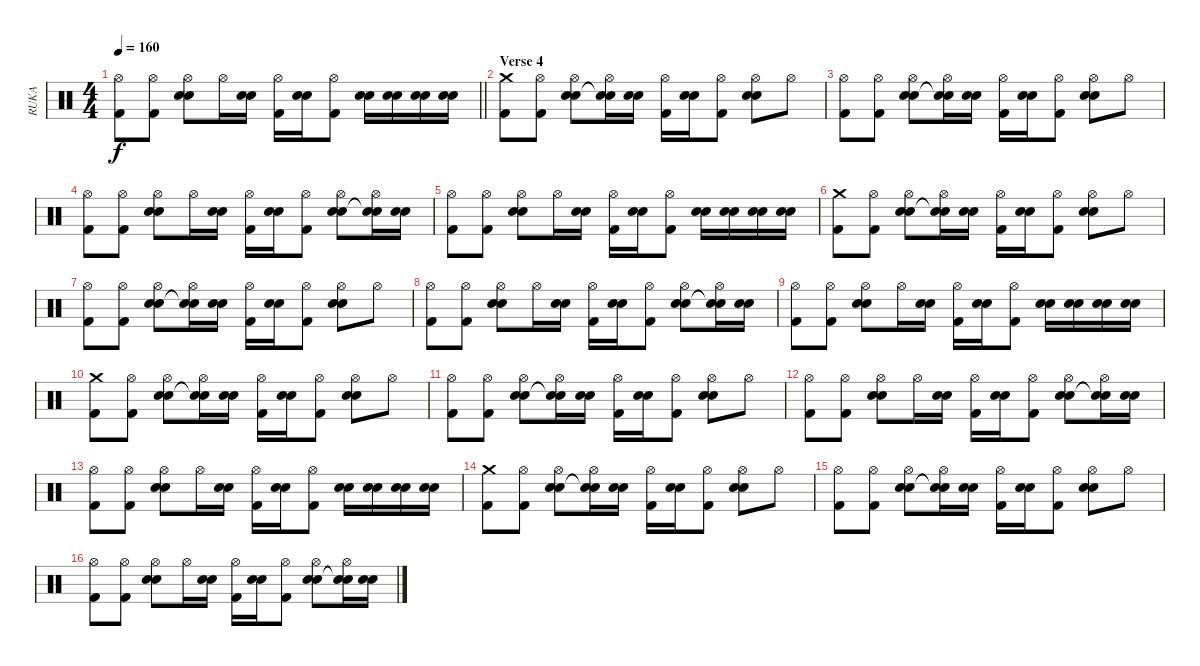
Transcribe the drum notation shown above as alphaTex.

\track ("RUKA" "RUKA") {instrument percussion}
\staff {score}
\articulation defaults
\ts (4 4)
\tempo 160
\clef neutral
\barLineRight lightlight
\ks c
("Hi-Hat (open)" "Kick (hit) 2").8{dy f} ("Hi-Hat (open)" "Kick (hit) 2").8 ("Hi-Hat (open)" "Snare (hit) 2" "Electric Snare (hit)").8 "Hi-Hat (open)".16 ("Snare (hit) 2" "Electric Snare (hit)").16 ("Hi-Hat (open)" "Kick (hit) 2").16 ("Snare (hit) 2" "Electric Snare (hit)").16 ("Hi-Hat (open)" "Kick (hit) 2").8 ("Snare (hit) 2" "Electric Snare (hit)").16 ("Snare (hit) 2" "Electric Snare (hit)").16 ("Snare (hit) 2" "Electric Snare (hit)").16 ("Snare (hit) 2" "Electric Snare (hit)").16 |
\section ("" "Verse 4")
("Crash medium (hit)" "Kick (hit) 2").8 ("Hi-Hat (open)" "Kick (hit) 2").8 ("Hi-Hat (open)" "Snare (hit) 2" "Electric Snare (hit)").8 ("Hi-Hat (open)" "Snare (hit)"{t} "Snare (hit)"{t}).16 ("Snare (hit) 2" "Electric Snare (hit)").16 ("Hi-Hat (open)" "Kick (hit) 2").16 ("Snare (hit) 2" "Electric Snare (hit)").16 ("Hi-Hat (open)" "Kick (hit) 2").8 ("Hi-Hat (open)" "Snare (hit) 2" "Electric Snare (hit)").8 "Hi-Hat (open)".8 |
("Hi-Hat (open)" "Kick (hit) 2").8 ("Hi-Hat (open)" "Kick (hit) 2").8 ("Hi-Hat (open)" "Snare (hit) 2" "Electric Snare (hit)").8 ("Hi-Hat (open)" "Snare (hit)"{t} "Snare (hit)"{t}).16 ("Snare (hit) 2" "Electric Snare (hit)").16 ("Hi-Hat (open)" "Kick (hit) 2").16 ("Snare (hit) 2" "Electric Snare (hit)").16 ("Hi-Hat (open)" "Kick (hit) 2").8 ("Hi-Hat (open)" "Snare (hit) 2" "Electric Snare (hit)").8 "Hi-Hat (open)".8 |
("Hi-Hat (open)" "Kick (hit) 2").8 ("Hi-Hat (open)" "Kick (hit) 2").8 ("Hi-Hat (open)" "Snare (hit) 2" "Electric Snare (hit)").8 "Hi-Hat (open)".16 ("Snare (hit) 2" "Electric Snare (hit)").16 ("Hi-Hat (open)" "Kick (hit) 2").16 ("Snare (hit) 2" "Electric Snare (hit)").16 ("Hi-Hat (open)" "Kick (hit) 2").8 ("Hi-Hat (open)" "Snare (hit) 2" "Electric Snare (hit)").8 ("Hi-Hat (open)" "Snare (hit)"{t} "Snare (hit)"{t}).16 ("Snare (hit) 2" "Electric Snare (hit)").16 |
("Hi-Hat (open)" "Kick (hit) 2").8 ("Hi-Hat (open)" "Kick (hit) 2").8 ("Hi-Hat (open)" "Snare (hit) 2" "Electric Snare (hit)").8 "Hi-Hat (open)".16 ("Snare (hit) 2" "Electric Snare (hit)").16 ("Hi-Hat (open)" "Kick (hit) 2").16 ("Snare (hit) 2" "Electric Snare (hit)").16 ("Hi-Hat (open)" "Kick (hit) 2").8 ("Snare (hit) 2" "Electric Snare (hit)").16 ("Snare (hit) 2" "Electric Snare (hit)").16 ("Snare (hit) 2" "Electric Snare (hit)").16 ("Snare (hit) 2" "Electric Snare (hit)").16 |
("Crash medium (hit)" "Kick (hit) 2").8 ("Hi-Hat (open)" "Kick (hit) 2").8 ("Hi-Hat (open)" "Snare (hit) 2" "Electric Snare (hit)").8 ("Hi-Hat (open)" "Snare (hit)"{t} "Snare (hit)"{t}).16 ("Snare (hit) 2" "Electric Snare (hit)").16 ("Hi-Hat (open)" "Kick (hit) 2").16 ("Snare (hit) 2" "Electric Snare (hit)").16 ("Hi-Hat (open)" "Kick (hit) 2").8 ("Hi-Hat (open)" "Snare (hit) 2" "Electric Snare (hit)").8 "Hi-Hat (open)".8 |
("Hi-Hat (open)" "Kick (hit) 2").8 ("Hi-Hat (open)" "Kick (hit) 2").8 ("Hi-Hat (open)" "Snare (hit) 2" "Electric Snare (hit)").8 ("Hi-Hat (open)" "Snare (hit)"{t} "Snare (hit)"{t}).16 ("Snare (hit) 2" "Electric Snare (hit)").16 ("Hi-Hat (open)" "Kick (hit) 2").16 ("Snare (hit) 2" "Electric Snare (hit)").16 ("Hi-Hat (open)" "Kick (hit) 2").8 ("Hi-Hat (open)" "Snare (hit) 2" "Electric Snare (hit)").8 "Hi-Hat (open)".8 |
("Hi-Hat (open)" "Kick (hit) 2").8 ("Hi-Hat (open)" "Kick (hit) 2").8 ("Hi-Hat (open)" "Snare (hit) 2" "Electric Snare (hit)").8 "Hi-Hat (open)".16 ("Snare (hit) 2" "Electric Snare (hit)").16 ("Hi-Hat (open)" "Kick (hit) 2").16 ("Snare (hit) 2" "Electric Snare (hit)").16 ("Hi-Hat (open)" "Kick (hit) 2").8 ("Hi-Hat (open)" "Snare (hit) 2" "Electric Snare (hit)").8 ("Hi-Hat (open)" "Snare (hit)"{t} "Snare (hit)"{t}).16 ("Snare (hit) 2" "Electric Snare (hit)").16 |
("Hi-Hat (open)" "Kick (hit) 2").8 ("Hi-Hat (open)" "Kick (hit) 2").8 ("Hi-Hat (open)" "Snare (hit) 2" "Electric Snare (hit)").8 "Hi-Hat (open)".16 ("Snare (hit) 2" "Electric Snare (hit)").16 ("Hi-Hat (open)" "Kick (hit) 2").16 ("Snare (hit) 2" "Electric Snare (hit)").16 ("Hi-Hat (open)" "Kick (hit) 2").8 ("Snare (hit) 2" "Electric Snare (hit)").16 ("Snare (hit) 2" "Electric Snare (hit)").16 ("Snare (hit) 2" "Electric Snare (hit)").16 ("Snare (hit) 2" "Electric Snare (hit)").16 |
("Crash medium (hit)" "Kick (hit) 2").8 ("Hi-Hat (open)" "Kick (hit) 2").8 ("Hi-Hat (open)" "Snare (hit) 2" "Electric Snare (hit)").8 ("Hi-Hat (open)" "Snare (hit)"{t} "Snare (hit)"{t}).16 ("Snare (hit) 2" "Electric Snare (hit)").16 ("Hi-Hat (open)" "Kick (hit) 2").16 ("Snare (hit) 2" "Electric Snare (hit)").16 ("Hi-Hat (open)" "Kick (hit) 2").8 ("Hi-Hat (open)" "Snare (hit) 2" "Electric Snare (hit)").8 "Hi-Hat (open)".8 |
("Hi-Hat (open)" "Kick (hit) 2").8 ("Hi-Hat (open)" "Kick (hit) 2").8 ("Hi-Hat (open)" "Snare (hit) 2" "Electric Snare (hit)").8 ("Hi-Hat (open)" "Snare (hit)"{t} "Snare (hit)"{t}).16 ("Snare (hit) 2" "Electric Snare (hit)").16 ("Hi-Hat (open)" "Kick (hit) 2").16 ("Snare (hit) 2" "Electric Snare (hit)").16 ("Hi-Hat (open)" "Kick (hit) 2").8 ("Hi-Hat (open)" "Snare (hit) 2" "Electric Snare (hit)").8 "Hi-Hat (open)".8 |
("Hi-Hat (open)" "Kick (hit) 2").8 ("Hi-Hat (open)" "Kick (hit) 2").8 ("Hi-Hat (open)" "Snare (hit) 2" "Electric Snare (hit)").8 "Hi-Hat (open)".16 ("Snare (hit) 2" "Electric Snare (hit)").16 ("Hi-Hat (open)" "Kick (hit) 2").16 ("Snare (hit) 2" "Electric Snare (hit)").16 ("Hi-Hat (open)" "Kick (hit) 2").8 ("Hi-Hat (open)" "Snare (hit) 2" "Electric Snare (hit)").8 ("Hi-Hat (open)" "Snare (hit)"{t} "Snare (hit)"{t}).16 ("Snare (hit) 2" "Electric Snare (hit)").16 |
("Hi-Hat (open)" "Kick (hit) 2").8 ("Hi-Hat (open)" "Kick (hit) 2").8 ("Hi-Hat (open)" "Snare (hit) 2" "Electric Snare (hit)").8 "Hi-Hat (open)".16 ("Snare (hit) 2" "Electric Snare (hit)").16 ("Hi-Hat (open)" "Kick (hit) 2").16 ("Snare (hit) 2" "Electric Snare (hit)").16 ("Hi-Hat (open)" "Kick (hit) 2").8 ("Snare (hit) 2" "Electric Snare (hit)").16 ("Snare (hit) 2" "Electric Snare (hit)").16 ("Snare (hit) 2" "Electric Snare (hit)").16 ("Snare (hit) 2" "Electric Snare (hit)").16 |
("Crash medium (hit)" "Kick (hit) 2").8 ("Hi-Hat (open)" "Kick (hit) 2").8 ("Hi-Hat (open)" "Snare (hit) 2" "Electric Snare (hit)").8 ("Hi-Hat (open)" "Snare (hit)"{t} "Snare (hit)"{t}).16 ("Snare (hit) 2" "Electric Snare (hit)").16 ("Hi-Hat (open)" "Kick (hit) 2").16 ("Snare (hit) 2" "Electric Snare (hit)").16 ("Hi-Hat (open)" "Kick (hit) 2").8 ("Hi-Hat (open)" "Snare (hit) 2" "Electric Snare (hit)").8 "Hi-Hat (open)".8 |
("Hi-Hat (open)" "Kick (hit) 2").8 ("Hi-Hat (open)" "Kick (hit) 2").8 ("Hi-Hat (open)" "Snare (hit) 2" "Electric Snare (hit)").8 ("Hi-Hat (open)" "Snare (hit)"{t} "Snare (hit)"{t}).16 ("Snare (hit) 2" "Electric Snare (hit)").16 ("Hi-Hat (open)" "Kick (hit) 2").16 ("Snare (hit) 2" "Electric Snare (hit)").16 ("Hi-Hat (open)" "Kick (hit) 2").8 ("Hi-Hat (open)" "Snare (hit) 2" "Electric Snare (hit)").8 "Hi-Hat (open)".8 |
("Hi-Hat (open)" "Kick (hit) 2").8 ("Hi-Hat (open)" "Kick (hit) 2").8 ("Hi-Hat (open)" "Snare (hit) 2" "Electric Snare (hit)").8 "Hi-Hat (open)".16 ("Snare (hit) 2" "Electric Snare (hit)").16 ("Hi-Hat (open)" "Kick (hit) 2").16 ("Snare (hit) 2" "Electric Snare (hit)").16 ("Hi-Hat (open)" "Kick (hit) 2").8 ("Hi-Hat (open)" "Snare (hit) 2" "Electric Snare (hit)").8 ("Hi-Hat (open)" "Snare (hit)"{t} "Snare (hit)"{t}).16 ("Snare (hit) 2" "Electric Snare (hit)").16
